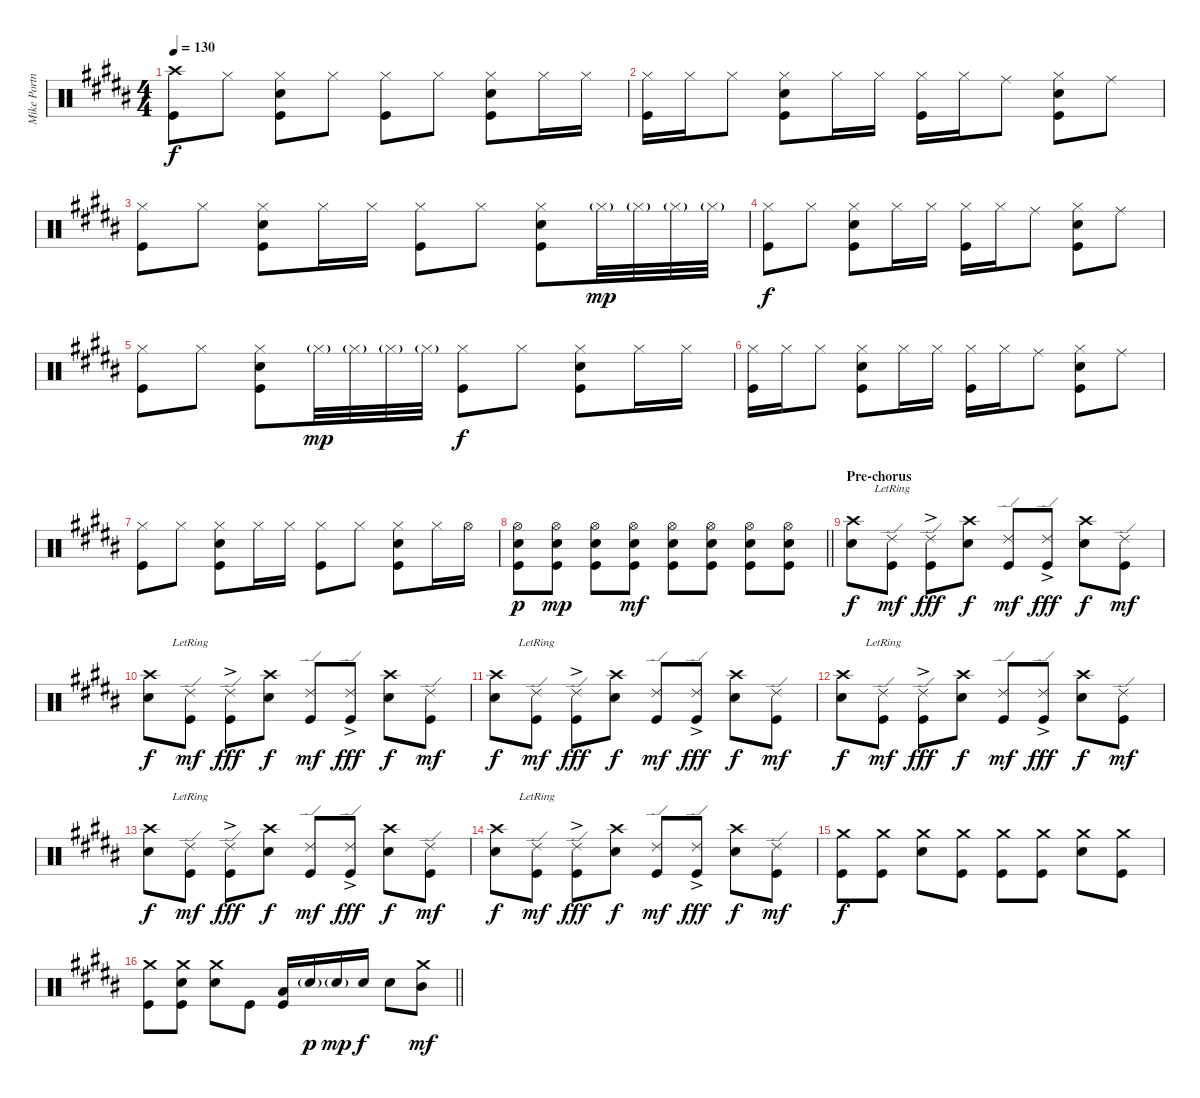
\track ("Mike Portnoy" "Mike Portn") {instrument percussion}
\staff {score}
\articulation defaults
\ts (4 4)
\tempo 130
\clef neutral
\ks g#minor
("Crash high (hit)" "Kick (hit)").8{dy f} "Hi-Hat (closed)".8 ("Hi-Hat (closed)" "Electric Snare (hit)" "Kick (hit)").8 "Hi-Hat (closed)".8 ("Hi-Hat (closed)" "Kick (hit)").8 "Hi-Hat (closed)".8 ("Hi-Hat (closed)" "Electric Snare (hit)" "Kick (hit)").8 "Hi-Hat (closed)".16 "Hi-Hat (closed)".16 |
("Hi-Hat (closed)" "Kick (hit)").16 "Hi-Hat (closed)".16 "Hi-Hat (closed)".8 ("Hi-Hat (closed)" "Electric Snare (hit)" "Kick (hit)").8 "Hi-Hat (closed)".16 "Hi-Hat (closed)".16 ("Hi-Hat (closed)" "Kick (hit)").16 "Hi-Hat (closed)".16 "Ride (middle)".8 ("Hi-Hat (closed)" "Electric Snare (hit)" "Kick (hit)").8 "Ride (middle)".8 |
("Hi-Hat (closed)" "Kick (hit)").8 "Hi-Hat (closed)".8 ("Hi-Hat (closed)" "Electric Snare (hit)" "Kick (hit)").8 "Hi-Hat (closed)".16 "Hi-Hat (closed)".16 ("Hi-Hat (closed)" "Kick (hit)").8 "Hi-Hat (closed)".8 ("Hi-Hat (closed)" "Electric Snare (hit)" "Kick (hit)").8 "Hi-Hat (closed)"{g}.32{dy mp} "Hi-Hat (closed)"{g}.32 "Hi-Hat (closed)"{g}.32 "Hi-Hat (closed)"{g}.32 |
("Hi-Hat (closed)" "Kick (hit)").8{dy f} "Hi-Hat (closed)".8 ("Hi-Hat (closed)" "Electric Snare (hit)" "Kick (hit)").8 "Hi-Hat (closed)".16 "Hi-Hat (closed)".16 ("Hi-Hat (closed)" "Kick (hit)").16 "Hi-Hat (closed)".16 "Ride (middle)".8 ("Hi-Hat (closed)" "Electric Snare (hit)" "Kick (hit)").8 "Ride (middle)".8 |
("Hi-Hat (closed)" "Kick (hit)").8 "Hi-Hat (closed)".8 ("Hi-Hat (closed)" "Electric Snare (hit)" "Kick (hit)").8 "Hi-Hat (closed)"{g}.32{dy mp} "Hi-Hat (closed)"{g}.32 "Hi-Hat (closed)"{g}.32 "Hi-Hat (closed)"{g}.32 ("Hi-Hat (closed)" "Kick (hit)").8{dy f} "Hi-Hat (closed)".8 ("Hi-Hat (closed)" "Electric Snare (hit)" "Kick (hit)").8 "Hi-Hat (closed)".16 "Hi-Hat (closed)".16 |
("Hi-Hat (closed)" "Kick (hit)").16 "Hi-Hat (closed)".16 "Hi-Hat (closed)".8 ("Hi-Hat (closed)" "Electric Snare (hit)" "Kick (hit)").8 "Hi-Hat (closed)".16 "Hi-Hat (closed)".16 ("Hi-Hat (closed)" "Kick (hit)").16 "Hi-Hat (closed)".16 "Ride (middle)".8 ("Hi-Hat (closed)" "Electric Snare (hit)" "Kick (hit)").8 "Ride (middle)".8 |
("Hi-Hat (closed)" "Kick (hit)").8 "Hi-Hat (closed)".8 ("Hi-Hat (closed)" "Electric Snare (hit)" "Kick (hit)").8 "Hi-Hat (closed)".16 "Hi-Hat (closed)".16 ("Hi-Hat (closed)" "Kick (hit)").8 "Hi-Hat (closed)".8 ("Hi-Hat (closed)" "Electric Snare (hit)" "Kick (hit)").8 "Hi-Hat (closed)".16 "Hi-Hat (open)".16 |
\barLineRight lightlight
("Hi-Hat (open)" "Electric Snare (hit)" "Kick (hit)").8{dy p} ("Hi-Hat (open)" "Electric Snare (hit)" "Kick (hit)").8{dy mp} ("Hi-Hat (open)" "Electric Snare (hit)" "Kick (hit)").8 ("Hi-Hat (open)" "Electric Snare (hit)" "Kick (hit)").8{dy mf} ("Hi-Hat (open)" "Electric Snare (hit)" "Kick (hit)").8 ("Hi-Hat (open)" "Electric Snare (hit)" "Kick (hit)").8 ("Hi-Hat (open)" "Electric Snare (hit)" "Kick (hit)").8 ("Hi-Hat (open)" "Electric Snare (hit)" "Kick (hit)").8 |
\section ("" "Pre-chorus")
("Crash high (hit)" "Electric Snare (hit)").8{dy f} ("Ride (edge) 2"{lr} "Kick (hit)").8{dy mf} ("Ride (edge) 2" "Kick (hit)"{ac}).8{dy fff} ("Crash high (hit)" "Electric Snare (hit)").8{dy f} ("Ride (edge) 2" "Kick (hit)").8{dy mf} ("Ride (edge) 2" "Kick (hit)"{ac}).8{dy fff} ("Crash high (hit)" "Electric Snare (hit)").8{dy f} ("Ride (edge) 2" "Kick (hit)").8{dy mf} |
("Crash high (hit)" "Electric Snare (hit)").8{dy f} ("Ride (edge) 2"{lr} "Kick (hit)").8{dy mf} ("Ride (edge) 2" "Kick (hit)"{ac}).8{dy fff} ("Crash high (hit)" "Electric Snare (hit)").8{dy f} ("Ride (edge) 2" "Kick (hit)").8{dy mf} ("Ride (edge) 2" "Kick (hit)"{ac}).8{dy fff} ("Crash high (hit)" "Electric Snare (hit)").8{dy f} ("Ride (edge) 2" "Kick (hit)").8{dy mf} |
("Crash high (hit)" "Electric Snare (hit)").8{dy f} ("Ride (edge) 2"{lr} "Kick (hit)").8{dy mf} ("Ride (edge) 2" "Kick (hit)"{ac}).8{dy fff} ("Crash high (hit)" "Electric Snare (hit)").8{dy f} ("Ride (edge) 2" "Kick (hit)").8{dy mf} ("Ride (edge) 2" "Kick (hit)"{ac}).8{dy fff} ("Crash high (hit)" "Electric Snare (hit)").8{dy f} ("Ride (edge) 2" "Kick (hit)").8{dy mf} |
("Crash high (hit)" "Electric Snare (hit)").8{dy f} ("Ride (edge) 2"{lr} "Kick (hit)").8{dy mf} ("Ride (edge) 2" "Kick (hit)"{ac}).8{dy fff} ("Crash high (hit)" "Electric Snare (hit)").8{dy f} ("Ride (edge) 2" "Kick (hit)").8{dy mf} ("Ride (edge) 2" "Kick (hit)"{ac}).8{dy fff} ("Crash high (hit)" "Electric Snare (hit)").8{dy f} ("Ride (edge) 2" "Kick (hit)").8{dy mf} |
("Crash high (hit)" "Electric Snare (hit)").8{dy f} ("Ride (edge) 2"{lr} "Kick (hit)").8{dy mf} ("Ride (edge) 2" "Kick (hit)"{ac}).8{dy fff} ("Crash high (hit)" "Electric Snare (hit)").8{dy f} ("Ride (edge) 2" "Kick (hit)").8{dy mf} ("Ride (edge) 2" "Kick (hit)"{ac}).8{dy fff} ("Crash high (hit)" "Electric Snare (hit)").8{dy f} ("Ride (edge) 2" "Kick (hit)").8{dy mf} |
("Crash high (hit)" "Electric Snare (hit)").8{dy f} ("Ride (edge) 2"{lr} "Kick (hit)").8{dy mf} ("Ride (edge) 2" "Kick (hit)"{ac}).8{dy fff} ("Crash high (hit)" "Electric Snare (hit)").8{dy f} ("Ride (edge) 2" "Kick (hit)").8{dy mf} ("Ride (edge) 2" "Kick (hit)"{ac}).8{dy fff} ("Crash high (hit)" "Electric Snare (hit)").8{dy f} ("Ride (edge) 2" "Kick (hit)").8{dy mf} |
("Crash medium (hit)" "Kick (hit)").8{dy f} ("Crash medium (hit)" "Kick (hit)").8 ("Crash medium (hit)" "Electric Snare (hit)").8 ("Crash medium (hit)" "Kick (hit)").8 ("Crash medium (hit)" "Kick (hit)").8 ("Crash medium (hit)" "Kick (hit)").8 ("Crash medium (hit)" "Electric Snare (hit)").8 ("Crash medium (hit)" "Kick (hit)").8 |
\barLineRight lightlight
("Crash medium (hit)" "Kick (hit)").8 ("Crash medium (hit)" "Electric Snare (hit)" "Kick (hit)").8 ("Crash medium (hit)" "Electric Snare (hit)").8 "Kick (hit)".8 ("Low Tom (hit)" "Kick (hit)").16 "Electric Snare (hit)"{g}.16{dy p} "Electric Snare (hit)"{g}.16{dy mp} "Electric Snare (hit)".16{dy f} "Electric Snare (hit)".8 ("Crash medium (hit)" "Mid Tom (hit)").8{dy mf}
